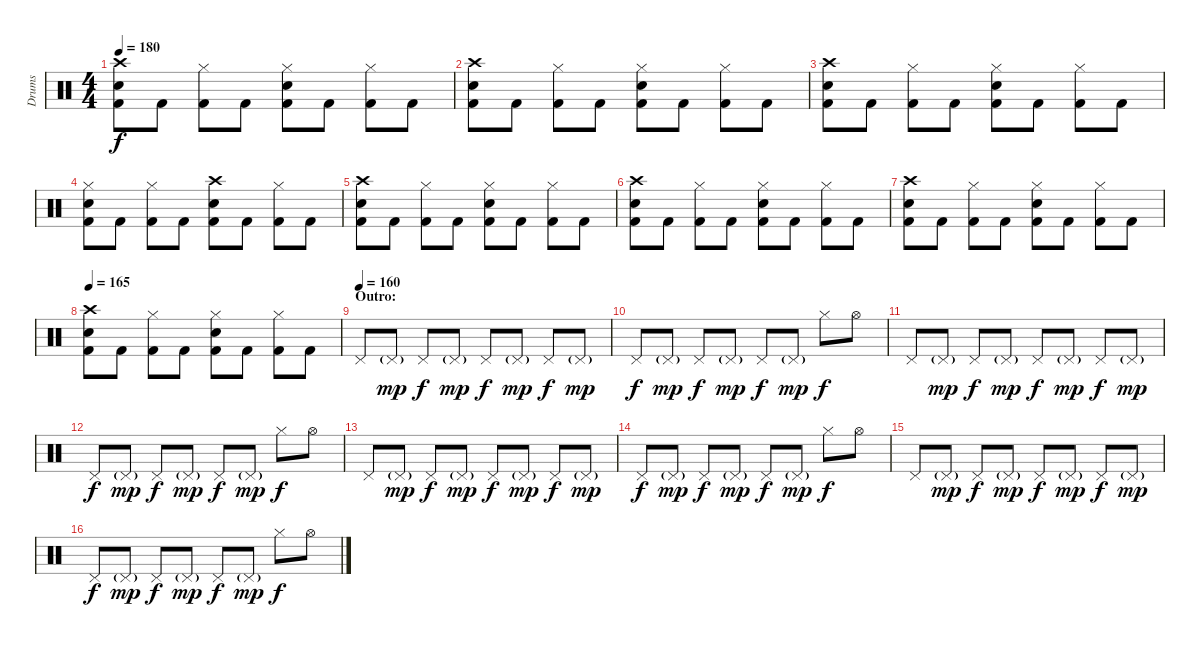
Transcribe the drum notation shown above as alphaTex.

\track ("Drums" "Drums") {instrument percussion}
\staff {score}
\articulation defaults
\ts (4 4)
\tempo 180
\clef neutral
\ks c
("Crash high (hit)" "Electric Snare (hit)" "Kick (hit) 2").8{dy f} "Kick (hit) 2".8 ("Hi-Hat (closed)" "Kick (hit) 2").8 "Kick (hit) 2".8 ("Hi-Hat (closed)" "Electric Snare (hit)" "Kick (hit) 2").8 "Kick (hit) 2".8 ("Hi-Hat (closed)" "Kick (hit) 2").8 "Kick (hit) 2".8 |
("Crash high (hit)" "Electric Snare (hit)" "Kick (hit) 2").8 "Kick (hit) 2".8 ("Hi-Hat (closed)" "Kick (hit) 2").8 "Kick (hit) 2".8 ("Hi-Hat (closed)" "Electric Snare (hit)" "Kick (hit) 2").8 "Kick (hit) 2".8 ("Hi-Hat (closed)" "Kick (hit) 2").8 "Kick (hit) 2".8 |
("Crash high (hit)" "Electric Snare (hit)" "Kick (hit) 2").8 "Kick (hit) 2".8 ("Hi-Hat (closed)" "Kick (hit) 2").8 "Kick (hit) 2".8 ("Hi-Hat (closed)" "Electric Snare (hit)" "Kick (hit) 2").8 "Kick (hit) 2".8 ("Hi-Hat (closed)" "Kick (hit) 2").8 "Kick (hit) 2".8 |
("Hi-Hat (closed)" "Electric Snare (hit)" "Kick (hit) 2").8 "Kick (hit) 2".8 ("Hi-Hat (closed)" "Kick (hit) 2").8 "Kick (hit) 2".8 ("Crash high (hit)" "Electric Snare (hit)" "Kick (hit) 2").8 "Kick (hit) 2".8 ("Hi-Hat (closed)" "Kick (hit) 2").8 "Kick (hit) 2".8 |
("Crash high (hit)" "Electric Snare (hit)" "Kick (hit) 2").8 "Kick (hit) 2".8 ("Hi-Hat (closed)" "Kick (hit) 2").8 "Kick (hit) 2".8 ("Hi-Hat (closed)" "Electric Snare (hit)" "Kick (hit) 2").8 "Kick (hit) 2".8 ("Hi-Hat (closed)" "Kick (hit) 2").8 "Kick (hit) 2".8 |
("Crash high (hit)" "Electric Snare (hit)" "Kick (hit) 2").8 "Kick (hit) 2".8 ("Hi-Hat (closed)" "Kick (hit) 2").8 "Kick (hit) 2".8 ("Hi-Hat (closed)" "Electric Snare (hit)" "Kick (hit) 2").8 "Kick (hit) 2".8 ("Hi-Hat (closed)" "Kick (hit) 2").8 "Kick (hit) 2".8 |
("Crash high (hit)" "Electric Snare (hit)" "Kick (hit) 2").8 "Kick (hit) 2".8 ("Hi-Hat (closed)" "Kick (hit) 2").8 "Kick (hit) 2".8 ("Hi-Hat (closed)" "Electric Snare (hit)" "Kick (hit) 2").8 "Kick (hit) 2".8 ("Hi-Hat (closed)" "Kick (hit) 2").8 "Kick (hit) 2".8 |
\tempo 165
("Crash high (hit)" "Electric Snare (hit)" "Kick (hit) 2").8 "Kick (hit) 2".8 ("Hi-Hat (closed)" "Kick (hit) 2").8 "Kick (hit) 2".8 ("Hi-Hat (closed)" "Electric Snare (hit)" "Kick (hit) 2").8 "Kick (hit) 2".8 ("Hi-Hat (closed)" "Kick (hit) 2").8 "Kick (hit) 2".8 |
\section ("" "Outro:")
\tempo (160)
"Pedal Hi-Hat (hit)".8 "Pedal Hi-Hat (hit)"{g}.8{dy mp} "Pedal Hi-Hat (hit)".8{dy f} "Pedal Hi-Hat (hit)"{g}.8{dy mp} "Pedal Hi-Hat (hit)".8{dy f} "Pedal Hi-Hat (hit)"{g}.8{dy mp} "Pedal Hi-Hat (hit)".8{dy f} "Pedal Hi-Hat (hit)"{g}.8{dy mp} |
"Pedal Hi-Hat (hit)".8{dy f} "Pedal Hi-Hat (hit)"{g}.8{dy mp} "Pedal Hi-Hat (hit)".8{dy f} "Pedal Hi-Hat (hit)"{g}.8{dy mp} "Pedal Hi-Hat (hit)".8{dy f} "Pedal Hi-Hat (hit)"{g}.8{dy mp} "Hi-Hat (closed)".8{dy f} "Hi-Hat (open)".8 |
"Pedal Hi-Hat (hit)".8 "Pedal Hi-Hat (hit)"{g}.8{dy mp} "Pedal Hi-Hat (hit)".8{dy f} "Pedal Hi-Hat (hit)"{g}.8{dy mp} "Pedal Hi-Hat (hit)".8{dy f} "Pedal Hi-Hat (hit)"{g}.8{dy mp} "Pedal Hi-Hat (hit)".8{dy f} "Pedal Hi-Hat (hit)"{g}.8{dy mp} |
"Pedal Hi-Hat (hit)".8{dy f} "Pedal Hi-Hat (hit)"{g}.8{dy mp} "Pedal Hi-Hat (hit)".8{dy f} "Pedal Hi-Hat (hit)"{g}.8{dy mp} "Pedal Hi-Hat (hit)".8{dy f} "Pedal Hi-Hat (hit)"{g}.8{dy mp} "Hi-Hat (closed)".8{dy f} "Hi-Hat (open)".8 |
"Pedal Hi-Hat (hit)".8 "Pedal Hi-Hat (hit)"{g}.8{dy mp} "Pedal Hi-Hat (hit)".8{dy f} "Pedal Hi-Hat (hit)"{g}.8{dy mp} "Pedal Hi-Hat (hit)".8{dy f} "Pedal Hi-Hat (hit)"{g}.8{dy mp} "Pedal Hi-Hat (hit)".8{dy f} "Pedal Hi-Hat (hit)"{g}.8{dy mp} |
"Pedal Hi-Hat (hit)".8{dy f} "Pedal Hi-Hat (hit)"{g}.8{dy mp} "Pedal Hi-Hat (hit)".8{dy f} "Pedal Hi-Hat (hit)"{g}.8{dy mp} "Pedal Hi-Hat (hit)".8{dy f} "Pedal Hi-Hat (hit)"{g}.8{dy mp} "Hi-Hat (closed)".8{dy f} "Hi-Hat (open)".8 |
"Pedal Hi-Hat (hit)".8 "Pedal Hi-Hat (hit)"{g}.8{dy mp} "Pedal Hi-Hat (hit)".8{dy f} "Pedal Hi-Hat (hit)"{g}.8{dy mp} "Pedal Hi-Hat (hit)".8{dy f} "Pedal Hi-Hat (hit)"{g}.8{dy mp} "Pedal Hi-Hat (hit)".8{dy f} "Pedal Hi-Hat (hit)"{g}.8{dy mp} |
"Pedal Hi-Hat (hit)".8{dy f} "Pedal Hi-Hat (hit)"{g}.8{dy mp} "Pedal Hi-Hat (hit)".8{dy f} "Pedal Hi-Hat (hit)"{g}.8{dy mp} "Pedal Hi-Hat (hit)".8{dy f} "Pedal Hi-Hat (hit)"{g}.8{dy mp} "Hi-Hat (closed)".8{dy f} "Hi-Hat (open)".8
